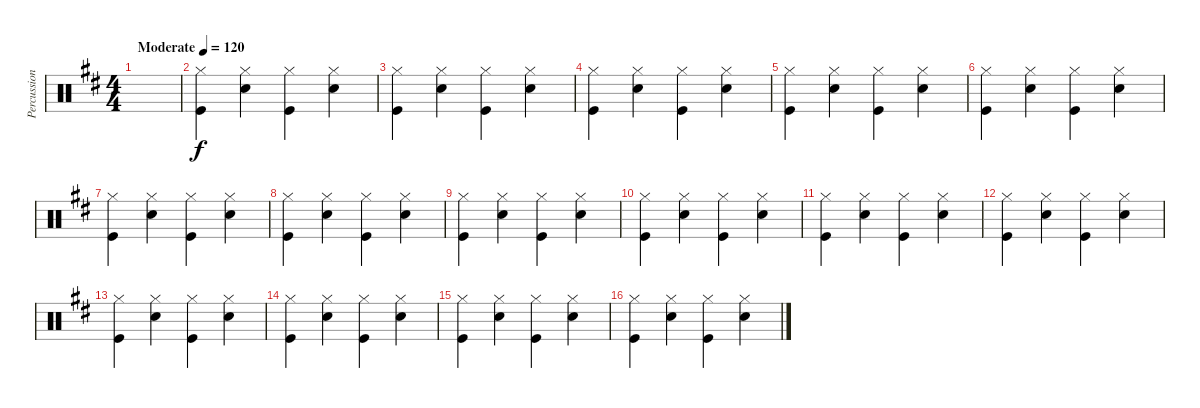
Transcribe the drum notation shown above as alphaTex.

\track ("Percussion" "Percussion") {instrument percussion}
\staff {score}
\articulation defaults
\ts (4 4)
\tempo (120 "Moderate")
\clef neutral
\ks d
|
("Hi-Hat (closed)" "Kick (hit)").4 ("Hi-Hat (closed)" "Snare (hit) 2").4 ("Hi-Hat (closed)" "Kick (hit)").4 ("Hi-Hat (closed)" "Snare (hit) 2").4 |
("Hi-Hat (closed)" "Kick (hit)").4 ("Hi-Hat (closed)" "Snare (hit) 2").4 ("Hi-Hat (closed)" "Kick (hit)").4 ("Hi-Hat (closed)" "Snare (hit) 2").4 |
("Hi-Hat (closed)" "Kick (hit)").4 ("Hi-Hat (closed)" "Snare (hit) 2").4 ("Hi-Hat (closed)" "Kick (hit)").4 ("Hi-Hat (closed)" "Snare (hit) 2").4 |
("Hi-Hat (closed)" "Kick (hit)").4 ("Hi-Hat (closed)" "Snare (hit) 2").4 ("Hi-Hat (closed)" "Kick (hit)").4 ("Hi-Hat (closed)" "Snare (hit) 2").4 |
("Hi-Hat (closed)" "Kick (hit)").4 ("Hi-Hat (closed)" "Snare (hit) 2").4 ("Hi-Hat (closed)" "Kick (hit)").4 ("Hi-Hat (closed)" "Snare (hit) 2").4 |
("Hi-Hat (closed)" "Kick (hit)").4 ("Hi-Hat (closed)" "Snare (hit) 2").4 ("Hi-Hat (closed)" "Kick (hit)").4 ("Hi-Hat (closed)" "Snare (hit) 2").4 |
("Hi-Hat (closed)" "Kick (hit)").4 ("Hi-Hat (closed)" "Snare (hit) 2").4 ("Hi-Hat (closed)" "Kick (hit)").4 ("Hi-Hat (closed)" "Snare (hit) 2").4 |
("Hi-Hat (closed)" "Kick (hit)").4 ("Hi-Hat (closed)" "Snare (hit) 2").4 ("Hi-Hat (closed)" "Kick (hit)").4 ("Hi-Hat (closed)" "Snare (hit) 2").4 |
("Hi-Hat (closed)" "Kick (hit)").4 ("Hi-Hat (closed)" "Snare (hit) 2").4 ("Hi-Hat (closed)" "Kick (hit)").4 ("Hi-Hat (closed)" "Snare (hit) 2").4 |
("Hi-Hat (closed)" "Kick (hit)").4 ("Hi-Hat (closed)" "Snare (hit) 2").4 ("Hi-Hat (closed)" "Kick (hit)").4 ("Hi-Hat (closed)" "Snare (hit) 2").4 |
("Hi-Hat (closed)" "Kick (hit)").4 ("Hi-Hat (closed)" "Snare (hit) 2").4 ("Hi-Hat (closed)" "Kick (hit)").4 ("Hi-Hat (closed)" "Snare (hit) 2").4 |
("Hi-Hat (closed)" "Kick (hit)").4 ("Hi-Hat (closed)" "Snare (hit) 2").4 ("Hi-Hat (closed)" "Kick (hit)").4 ("Hi-Hat (closed)" "Snare (hit) 2").4 |
("Hi-Hat (closed)" "Kick (hit)").4 ("Hi-Hat (closed)" "Snare (hit) 2").4 ("Hi-Hat (closed)" "Kick (hit)").4 ("Hi-Hat (closed)" "Snare (hit) 2").4 |
("Hi-Hat (closed)" "Kick (hit)").4 ("Hi-Hat (closed)" "Snare (hit) 2").4 ("Hi-Hat (closed)" "Kick (hit)").4 ("Hi-Hat (closed)" "Snare (hit) 2").4 |
("Hi-Hat (closed)" "Kick (hit)").4 ("Hi-Hat (closed)" "Snare (hit) 2").4 ("Hi-Hat (closed)" "Kick (hit)").4 ("Hi-Hat (closed)" "Snare (hit) 2").4
